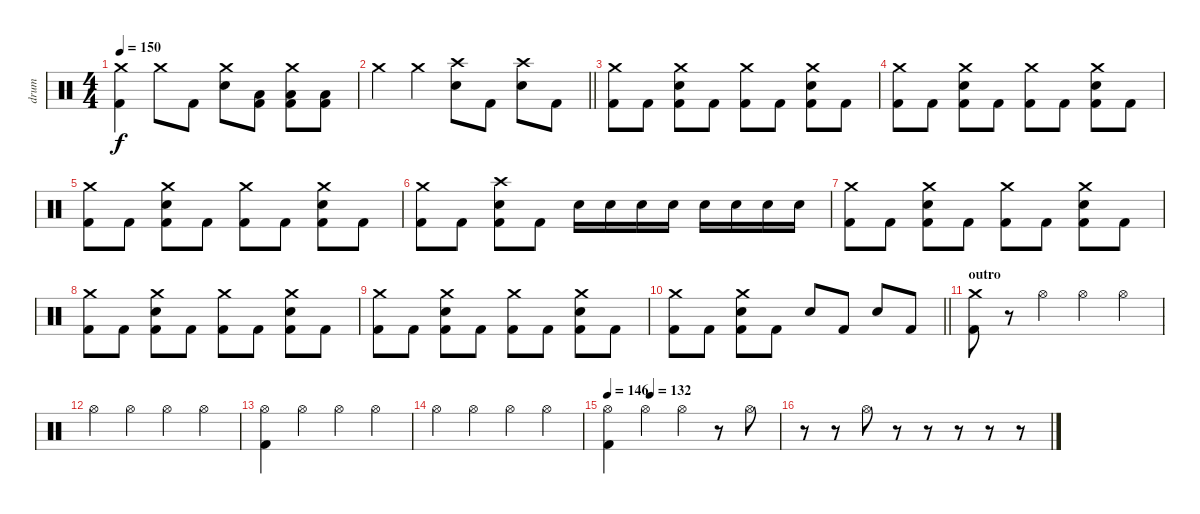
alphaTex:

\track ("drum" "drum") {instrument percussion}
\staff {score}
\articulation defaults
\ts (4 4)
\tempo 150
\clef neutral
\ks c
("Crash medium (hit)" "Kick (hit) 2").4{dy f} "Crash medium (hit)".8 "Kick (hit) 2".8 ("Crash medium (hit)" "Electric Snare (hit)").8 ("Low Floor Tom (hit)" "Kick (hit) 2").8 ("Crash medium (hit)" "Low Floor Tom (hit)" "Kick (hit) 2").8 ("Low Floor Tom (hit)" "Kick (hit) 2").8 |
\barLineRight lightlight "Crash medium (hit)".4 "Crash medium (hit)".4
("Crash high (hit)" "Electric Snare (hit)").8 "Kick (hit) 2".8 ("Crash high (hit)" "Electric Snare (hit)").8 "Kick (hit) 2".8 |
("Crash medium (hit)" "Kick (hit) 2").8 "Kick (hit) 2".8 ("Crash medium (hit)" "Electric Snare (hit)" "Kick (hit) 2").8 "Kick (hit) 2".8 ("Crash medium (hit)" "Kick (hit) 2").8 "Kick (hit) 2".8 ("Crash medium (hit)" "Electric Snare (hit)" "Kick (hit) 2").8 "Kick (hit) 2".8 |
("Crash medium (hit)" "Kick (hit) 2").8 "Kick (hit) 2".8 ("Crash medium (hit)" "Electric Snare (hit)" "Kick (hit) 2").8 "Kick (hit) 2".8 ("Crash medium (hit)" "Kick (hit) 2").8 "Kick (hit) 2".8 ("Crash medium (hit)" "Electric Snare (hit)" "Kick (hit) 2").8 "Kick (hit) 2".8 |
("Crash medium (hit)" "Kick (hit) 2").8 "Kick (hit) 2".8 ("Crash medium (hit)" "Electric Snare (hit)" "Kick (hit) 2").8 "Kick (hit) 2".8 ("Crash medium (hit)" "Kick (hit) 2").8 "Kick (hit) 2".8 ("Crash medium (hit)" "Electric Snare (hit)" "Kick (hit) 2").8 "Kick (hit) 2".8 |
("Crash medium (hit)" "Kick (hit) 2").8 "Kick (hit) 2".8 ("Crash high (hit)" "Electric Snare (hit)" "Kick (hit) 2").8 "Kick (hit) 2".8 "Electric Snare (hit)".16 "Electric Snare (hit)".16 "Electric Snare (hit)".16 "Electric Snare (hit)".16 "Electric Snare (hit)".16 "Electric Snare (hit)".16 "Electric Snare (hit)".16 "Electric Snare (hit)".16 |
("Crash medium (hit)" "Kick (hit) 2").8 "Kick (hit) 2".8 ("Crash medium (hit)" "Electric Snare (hit)" "Kick (hit) 2").8 "Kick (hit) 2".8 ("Crash medium (hit)" "Kick (hit) 2").8 "Kick (hit) 2".8 ("Crash medium (hit)" "Electric Snare (hit)" "Kick (hit) 2").8 "Kick (hit) 2".8 |
("Crash medium (hit)" "Kick (hit) 2").8 "Kick (hit) 2".8 ("Crash medium (hit)" "Electric Snare (hit)" "Kick (hit) 2").8 "Kick (hit) 2".8 ("Crash medium (hit)" "Kick (hit) 2").8 "Kick (hit) 2".8 ("Crash medium (hit)" "Electric Snare (hit)" "Kick (hit) 2").8 "Kick (hit) 2".8 |
("Crash medium (hit)" "Kick (hit) 2").8 "Kick (hit) 2".8 ("Crash medium (hit)" "Electric Snare (hit)" "Kick (hit) 2").8 "Kick (hit) 2".8 ("Crash medium (hit)" "Kick (hit) 2").8 "Kick (hit) 2".8 ("Crash medium (hit)" "Electric Snare (hit)" "Kick (hit) 2").8 "Kick (hit) 2".8 |
\barLineRight lightlight
("Crash medium (hit)" "Kick (hit) 2").8 "Kick (hit) 2".8 ("Crash medium (hit)" "Electric Snare (hit)" "Kick (hit) 2").8 "Kick (hit) 2".8 "Electric Snare (hit)".8 "Kick (hit) 2".8 "Electric Snare (hit)".8 "Kick (hit) 2".8 |
\section ("" "outro")
("Crash medium (hit)" "Kick (hit) 2").8 r.8 "Hi-Hat (open)".4 "Hi-Hat (open)".4 "Hi-Hat (open)".4 |
"Hi-Hat (open)".4 "Hi-Hat (open)".4 "Hi-Hat (open)".4 "Hi-Hat (open)".4 |
("Hi-Hat (open)" "Kick (hit) 2").4 "Hi-Hat (open)".4 "Hi-Hat (open)".4 "Hi-Hat (open)".4 |
"Hi-Hat (open)".4 "Hi-Hat (open)".4 "Hi-Hat (open)".4 "Hi-Hat (open)".4 |
\tempo 146
\tempo (132 0.25)
("Hi-Hat (open)" "Kick (hit) 2").4 "Hi-Hat (open)".4 "Hi-Hat (open)".4 r.8 "Hi-Hat (open)".8 |
r.8 r.8 "Hi-Hat (open)".8 r.8 r.8 r.8 r.8 r.8
